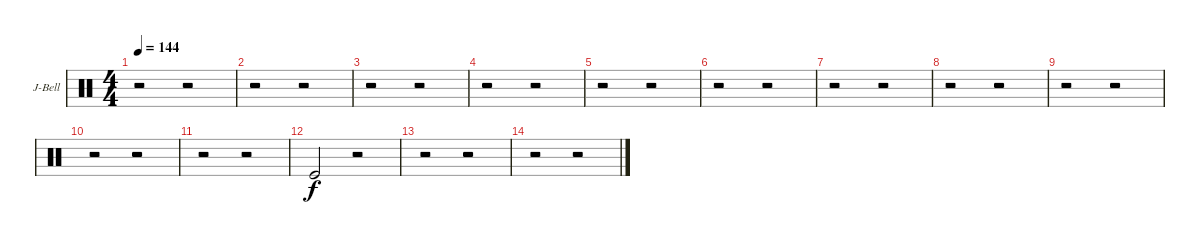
\bracketExtendMode groupsimilarinstruments
\firstSystemTrackNameOrientation horizontal
\otherSystemsTrackNameOrientation horizontal
\track ("Jingle Bell" "J-Bell") {instrument percussion}
\staff {score}
\articulation defaults
\ts (4 4)
\tempo 144
\clef neutral
\ks c
r.2{dy f} r.2 |
r.2 r.2 |
r.2 r.2 |
r.2 r.2 |
r.2 r.2 |
r.2 r.2 |
r.2 r.2 |
r.2 r.2 |
r.2 r.2 |
r.2 r.2 |
r.2 r.2 |
"Kick (hit)".2 r.2 |
r.2 r.2 |
r.2 r.2
